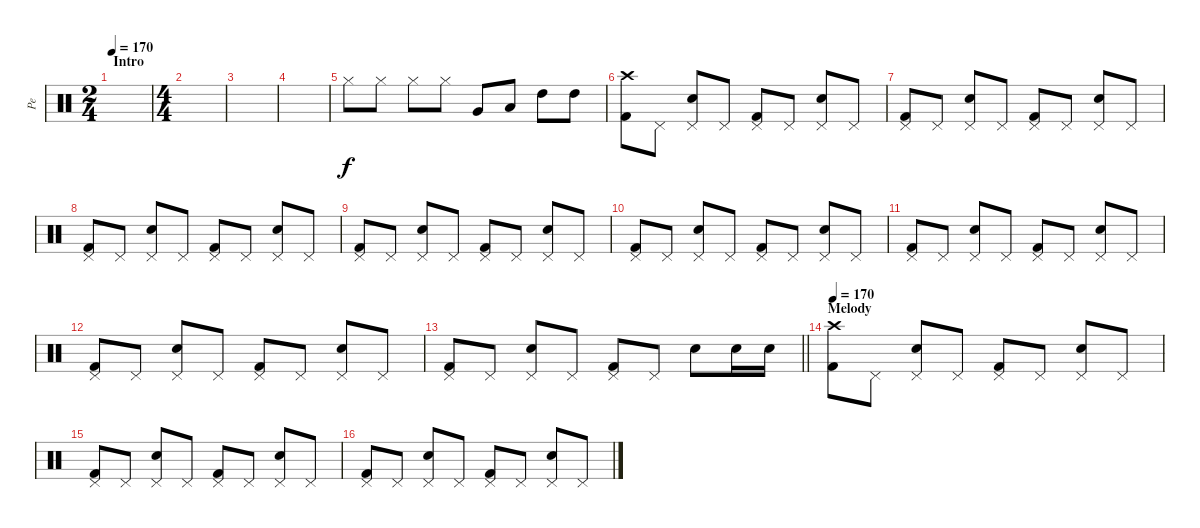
\track ("Pe" "Pe") {instrument percussion}
\staff {score}
\articulation defaults
\ts (2 4)
\section ("" "Intro")
\tempo 170
\tempo 80
\tempo 170
\clef neutral
\ks c
|
\ts (4 4)
|
|
|
"Hi-Hat (closed)".8 "Hi-Hat (closed)".8 "Hi-Hat (closed)".8 "Hi-Hat (closed)".8 "Very Low Tom (hit)".8 "Low Tom (hit)".8 "High Tom (hit)".8 "High Tom (hit)".8 |
("Kick (hit) 2" "Crash high (hit)").8 "Pedal Hi-Hat (hit)".8 ("Electric Snare (hit)" "Pedal Hi-Hat (hit)").8 "Pedal Hi-Hat (hit)".8 ("Kick (hit) 2" "Pedal Hi-Hat (hit)").8 "Pedal Hi-Hat (hit)".8 ("Electric Snare (hit)" "Pedal Hi-Hat (hit)").8 "Pedal Hi-Hat (hit)".8 |
("Kick (hit) 2" "Pedal Hi-Hat (hit)").8 "Pedal Hi-Hat (hit)".8 ("Electric Snare (hit)" "Pedal Hi-Hat (hit)").8 "Pedal Hi-Hat (hit)".8 ("Kick (hit) 2" "Pedal Hi-Hat (hit)").8 "Pedal Hi-Hat (hit)".8 ("Electric Snare (hit)" "Pedal Hi-Hat (hit)").8 "Pedal Hi-Hat (hit)".8 |
("Kick (hit) 2" "Pedal Hi-Hat (hit)").8 "Pedal Hi-Hat (hit)".8 ("Electric Snare (hit)" "Pedal Hi-Hat (hit)").8 "Pedal Hi-Hat (hit)".8 ("Kick (hit) 2" "Pedal Hi-Hat (hit)").8 "Pedal Hi-Hat (hit)".8 ("Electric Snare (hit)" "Pedal Hi-Hat (hit)").8 "Pedal Hi-Hat (hit)".8 |
("Kick (hit) 2" "Pedal Hi-Hat (hit)").8 "Pedal Hi-Hat (hit)".8 ("Electric Snare (hit)" "Pedal Hi-Hat (hit)").8 "Pedal Hi-Hat (hit)".8 ("Kick (hit) 2" "Pedal Hi-Hat (hit)").8 "Pedal Hi-Hat (hit)".8 ("Electric Snare (hit)" "Pedal Hi-Hat (hit)").8 "Pedal Hi-Hat (hit)".8 |
("Kick (hit) 2" "Pedal Hi-Hat (hit)").8 "Pedal Hi-Hat (hit)".8 ("Electric Snare (hit)" "Pedal Hi-Hat (hit)").8 "Pedal Hi-Hat (hit)".8 ("Kick (hit) 2" "Pedal Hi-Hat (hit)").8 "Pedal Hi-Hat (hit)".8 ("Electric Snare (hit)" "Pedal Hi-Hat (hit)").8 "Pedal Hi-Hat (hit)".8 |
("Kick (hit) 2" "Pedal Hi-Hat (hit)").8 "Pedal Hi-Hat (hit)".8 ("Electric Snare (hit)" "Pedal Hi-Hat (hit)").8 "Pedal Hi-Hat (hit)".8 ("Kick (hit) 2" "Pedal Hi-Hat (hit)").8 "Pedal Hi-Hat (hit)".8 ("Electric Snare (hit)" "Pedal Hi-Hat (hit)").8 "Pedal Hi-Hat (hit)".8 |
("Kick (hit) 2" "Pedal Hi-Hat (hit)").8 "Pedal Hi-Hat (hit)".8 ("Electric Snare (hit)" "Pedal Hi-Hat (hit)").8 "Pedal Hi-Hat (hit)".8 ("Kick (hit) 2" "Pedal Hi-Hat (hit)").8 "Pedal Hi-Hat (hit)".8 ("Electric Snare (hit)" "Pedal Hi-Hat (hit)").8 "Pedal Hi-Hat (hit)".8 |
\barLineRight lightlight
("Kick (hit) 2" "Pedal Hi-Hat (hit)").8 "Pedal Hi-Hat (hit)".8 ("Electric Snare (hit)" "Pedal Hi-Hat (hit)").8 "Pedal Hi-Hat (hit)".8 ("Kick (hit) 2" "Pedal Hi-Hat (hit)").8 "Pedal Hi-Hat (hit)".8 "Electric Snare (hit)".8 "Electric Snare (hit)".16 "Electric Snare (hit)".16 |
\section ("" "Melody")
\tempo 170
("Kick (hit) 2" "Crash high (hit)").8{volume 15} "Pedal Hi-Hat (hit)".8 ("Electric Snare (hit)" "Pedal Hi-Hat (hit)").8 "Pedal Hi-Hat (hit)".8 ("Kick (hit) 2" "Pedal Hi-Hat (hit)").8 "Pedal Hi-Hat (hit)".8 ("Electric Snare (hit)" "Pedal Hi-Hat (hit)").8 "Pedal Hi-Hat (hit)".8 |
("Kick (hit) 2" "Pedal Hi-Hat (hit)").8 "Pedal Hi-Hat (hit)".8 ("Electric Snare (hit)" "Pedal Hi-Hat (hit)").8 "Pedal Hi-Hat (hit)".8 ("Kick (hit) 2" "Pedal Hi-Hat (hit)").8 "Pedal Hi-Hat (hit)".8 ("Electric Snare (hit)" "Pedal Hi-Hat (hit)").8 "Pedal Hi-Hat (hit)".8 |
("Kick (hit) 2" "Pedal Hi-Hat (hit)").8 "Pedal Hi-Hat (hit)".8 ("Electric Snare (hit)" "Pedal Hi-Hat (hit)").8 "Pedal Hi-Hat (hit)".8 ("Kick (hit) 2" "Pedal Hi-Hat (hit)").8 "Pedal Hi-Hat (hit)".8 ("Electric Snare (hit)" "Pedal Hi-Hat (hit)").8 "Pedal Hi-Hat (hit)".8
